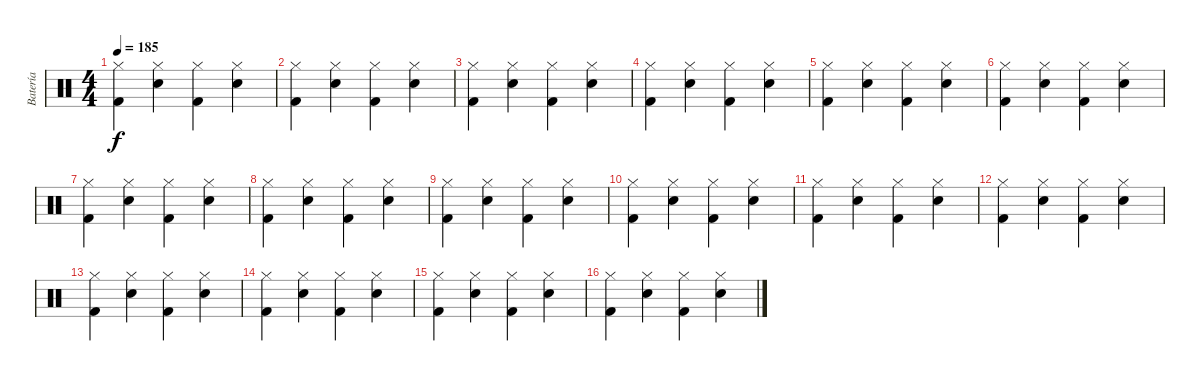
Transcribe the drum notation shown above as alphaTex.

\track ("Batería" "Batería") {instrument percussion}
\staff {score}
\articulation defaults
\ts (4 4)
\tempo 185
\clef neutral
\ks c
("Hi-Hat (closed)" "Kick (hit) 2").4{dy f} ("Hi-Hat (closed)" "Snare (hit) 2").4 ("Hi-Hat (closed)" "Kick (hit) 2").4 ("Hi-Hat (closed)" "Snare (hit) 2").4 |
("Hi-Hat (closed)" "Kick (hit) 2").4 ("Hi-Hat (closed)" "Snare (hit) 2").4 ("Hi-Hat (closed)" "Kick (hit) 2").4 ("Hi-Hat (closed)" "Snare (hit) 2").4 |
("Hi-Hat (closed)" "Kick (hit) 2").4 ("Hi-Hat (closed)" "Snare (hit) 2").4 ("Hi-Hat (closed)" "Kick (hit) 2").4 ("Hi-Hat (closed)" "Snare (hit) 2").4 |
("Hi-Hat (closed)" "Kick (hit) 2").4 ("Hi-Hat (closed)" "Snare (hit) 2").4 ("Hi-Hat (closed)" "Kick (hit) 2").4 ("Hi-Hat (closed)" "Snare (hit) 2").4 |
("Hi-Hat (closed)" "Kick (hit) 2").4 ("Hi-Hat (closed)" "Snare (hit) 2").4 ("Hi-Hat (closed)" "Kick (hit) 2").4 ("Hi-Hat (closed)" "Snare (hit) 2").4 |
("Hi-Hat (closed)" "Kick (hit) 2").4 ("Hi-Hat (closed)" "Snare (hit) 2").4 ("Hi-Hat (closed)" "Kick (hit) 2").4 ("Hi-Hat (closed)" "Snare (hit) 2").4 |
("Hi-Hat (closed)" "Kick (hit) 2").4 ("Hi-Hat (closed)" "Snare (hit) 2").4 ("Hi-Hat (closed)" "Kick (hit) 2").4 ("Hi-Hat (closed)" "Snare (hit) 2").4 |
("Hi-Hat (closed)" "Kick (hit) 2").4 ("Hi-Hat (closed)" "Snare (hit) 2").4 ("Hi-Hat (closed)" "Kick (hit) 2").4 ("Hi-Hat (closed)" "Snare (hit) 2").4 |
("Hi-Hat (closed)" "Kick (hit) 2").4 ("Hi-Hat (closed)" "Snare (hit) 2").4 ("Hi-Hat (closed)" "Kick (hit) 2").4 ("Hi-Hat (closed)" "Snare (hit) 2").4 |
("Hi-Hat (closed)" "Kick (hit) 2").4 ("Hi-Hat (closed)" "Snare (hit) 2").4 ("Hi-Hat (closed)" "Kick (hit) 2").4 ("Hi-Hat (closed)" "Snare (hit) 2").4 |
("Hi-Hat (closed)" "Kick (hit) 2").4 ("Hi-Hat (closed)" "Snare (hit) 2").4 ("Hi-Hat (closed)" "Kick (hit) 2").4 ("Hi-Hat (closed)" "Snare (hit) 2").4 |
("Hi-Hat (closed)" "Kick (hit) 2").4 ("Hi-Hat (closed)" "Snare (hit) 2").4 ("Hi-Hat (closed)" "Kick (hit) 2").4 ("Hi-Hat (closed)" "Snare (hit) 2").4 |
("Hi-Hat (closed)" "Kick (hit) 2").4 ("Hi-Hat (closed)" "Snare (hit) 2").4 ("Hi-Hat (closed)" "Kick (hit) 2").4 ("Hi-Hat (closed)" "Snare (hit) 2").4 |
("Hi-Hat (closed)" "Kick (hit) 2").4 ("Hi-Hat (closed)" "Snare (hit) 2").4 ("Hi-Hat (closed)" "Kick (hit) 2").4 ("Hi-Hat (closed)" "Snare (hit) 2").4 |
("Hi-Hat (closed)" "Kick (hit) 2").4 ("Hi-Hat (closed)" "Snare (hit) 2").4 ("Hi-Hat (closed)" "Kick (hit) 2").4 ("Hi-Hat (closed)" "Snare (hit) 2").4 |
("Hi-Hat (closed)" "Kick (hit) 2").4 ("Hi-Hat (closed)" "Snare (hit) 2").4 ("Hi-Hat (closed)" "Kick (hit) 2").4 ("Hi-Hat (closed)" "Snare (hit) 2").4
